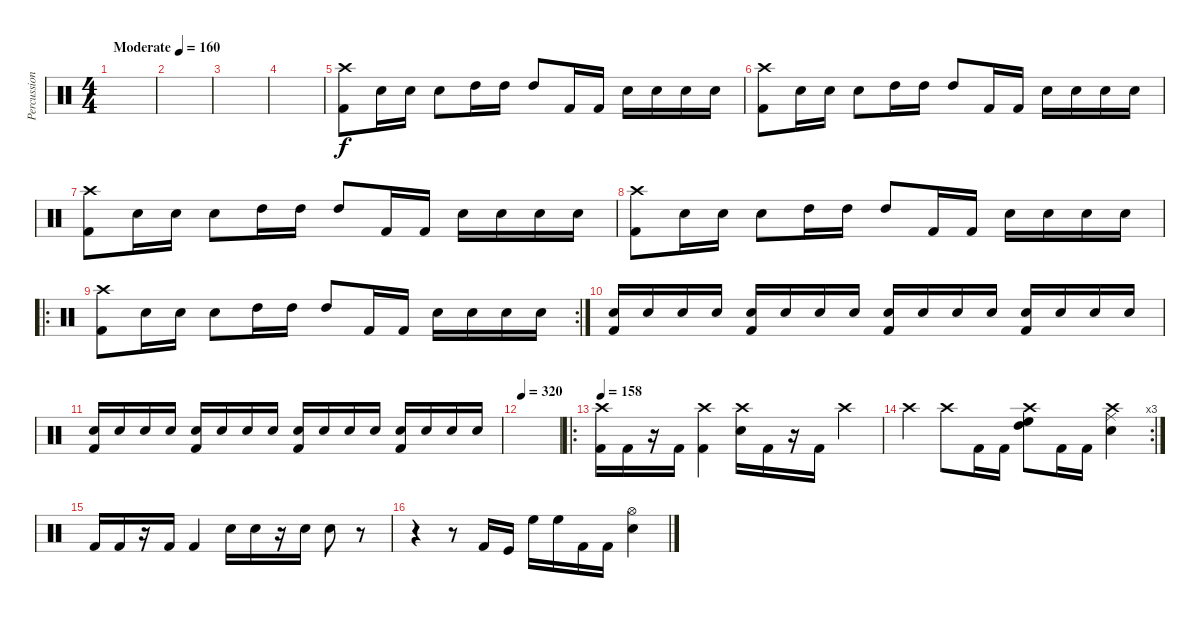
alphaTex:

\track ("Percussion" "Percussion") {instrument percussion}
\staff {score}
\articulation defaults
\ts (4 4)
\tempo (160 "Moderate")
\clef neutral
\ks c
|
|
|
|
("Crash high (hit)" "Kick (hit) 2").8 "Snare (hit) 2".16 "Snare (hit) 2".16 "Snare (hit) 2".8 "High Tom (hit)".16 "High Tom (hit)".16 "High Tom (hit)".8 "Kick (hit) 2".16 "Kick (hit) 2".16 "Snare (hit) 2".16 "Snare (hit) 2".16 "Snare (hit) 2".16 "Snare (hit) 2".16 |
("Crash high (hit)" "Kick (hit) 2").8 "Snare (hit) 2".16 "Snare (hit) 2".16 "Snare (hit) 2".8 "High Tom (hit)".16 "High Tom (hit)".16 "High Tom (hit)".8 "Kick (hit) 2".16 "Kick (hit) 2".16 "Snare (hit) 2".16 "Snare (hit) 2".16 "Snare (hit) 2".16 "Snare (hit) 2".16 |
("Crash high (hit)" "Kick (hit) 2").8 "Snare (hit) 2".16 "Snare (hit) 2".16 "Snare (hit) 2".8 "High Tom (hit)".16 "High Tom (hit)".16 "High Tom (hit)".8 "Kick (hit) 2".16 "Kick (hit) 2".16 "Snare (hit) 2".16 "Snare (hit) 2".16 "Snare (hit) 2".16 "Snare (hit) 2".16 |
("Crash high (hit)" "Kick (hit) 2").8 "Snare (hit) 2".16 "Snare (hit) 2".16 "Snare (hit) 2".8 "High Tom (hit)".16 "High Tom (hit)".16 "High Tom (hit)".8 "Kick (hit) 2".16 "Kick (hit) 2".16 "Snare (hit) 2".16 "Snare (hit) 2".16 "Snare (hit) 2".16 "Snare (hit) 2".16 |
\ro
\rc 2
("Crash high (hit)" "Kick (hit) 2").8 "Snare (hit) 2".16 "Snare (hit) 2".16 "Snare (hit) 2".8 "High Tom (hit)".16 "High Tom (hit)".16 "High Tom (hit)".8 "Kick (hit) 2".16 "Kick (hit) 2".16 "Snare (hit) 2".16 "Snare (hit) 2".16 "Snare (hit) 2".16 "Snare (hit) 2".16 |
("Snare (hit) 2" "Kick (hit) 2").16 "Snare (hit) 2".16 "Snare (hit) 2".16 "Snare (hit) 2".16 ("Snare (hit) 2" "Kick (hit) 2").16 "Snare (hit) 2".16 "Snare (hit) 2".16 "Snare (hit) 2".16 ("Snare (hit) 2" "Kick (hit) 2").16 "Snare (hit) 2".16 "Snare (hit) 2".16 "Snare (hit) 2".16 ("Snare (hit) 2" "Kick (hit) 2").16 "Snare (hit) 2".16 "Snare (hit) 2".16 "Snare (hit) 2".16 |
("Snare (hit) 2" "Kick (hit) 2").16 "Snare (hit) 2".16 "Snare (hit) 2".16 "Snare (hit) 2".16 ("Snare (hit) 2" "Kick (hit) 2").16 "Snare (hit) 2".16 "Snare (hit) 2".16 "Snare (hit) 2".16 ("Snare (hit) 2" "Kick (hit) 2").16 "Snare (hit) 2".16 "Snare (hit) 2".16 "Snare (hit) 2".16 ("Snare (hit) 2" "Kick (hit) 2").16 "Snare (hit) 2".16 "Snare (hit) 2".16 "Snare (hit) 2".16 |
\tempo 320
|
\ro
\tempo 158
("Crash high (hit)" "Kick (hit) 2").16 "Kick (hit) 2".16 r.16 "Kick (hit) 2".16 ("Crash high (hit)" "Kick (hit) 2").4 ("Crash high (hit)" "Snare (hit) 2").16 "Kick (hit) 2".16 r.16 "Kick (hit) 2".16 "Crash high (hit)".4 |
\rc 3 "Crash high (hit)".4 "Crash high (hit)".8 "Kick (hit) 2".16 "Kick (hit) 2".16
("Crash high (hit)" "High Floor Tom (hit)" "High Tom (hit)").8 "Kick (hit) 2".16 "Kick (hit) 2".16 ("Crash high (hit)" "Ride (middle)" "Snare (hit) 2").4 |
"Kick (hit) 2".16 "Kick (hit) 2".16 r.16 "Kick (hit) 2".16 "Kick (hit) 2".4 "Snare (hit) 2".16 "Snare (hit) 2".16 r.16 "Snare (hit) 2".16 "Snare (hit) 2".8 r.8 |
r.4 r.8 "Kick (hit) 2".16 "Kick (hit)".16 "High Floor Tom (hit)".16 "High Floor Tom (hit)".16 "Kick (hit) 2".16 "Kick (hit) 2".16 ("Hi-Hat (open)" "Snare (hit) 2").4
